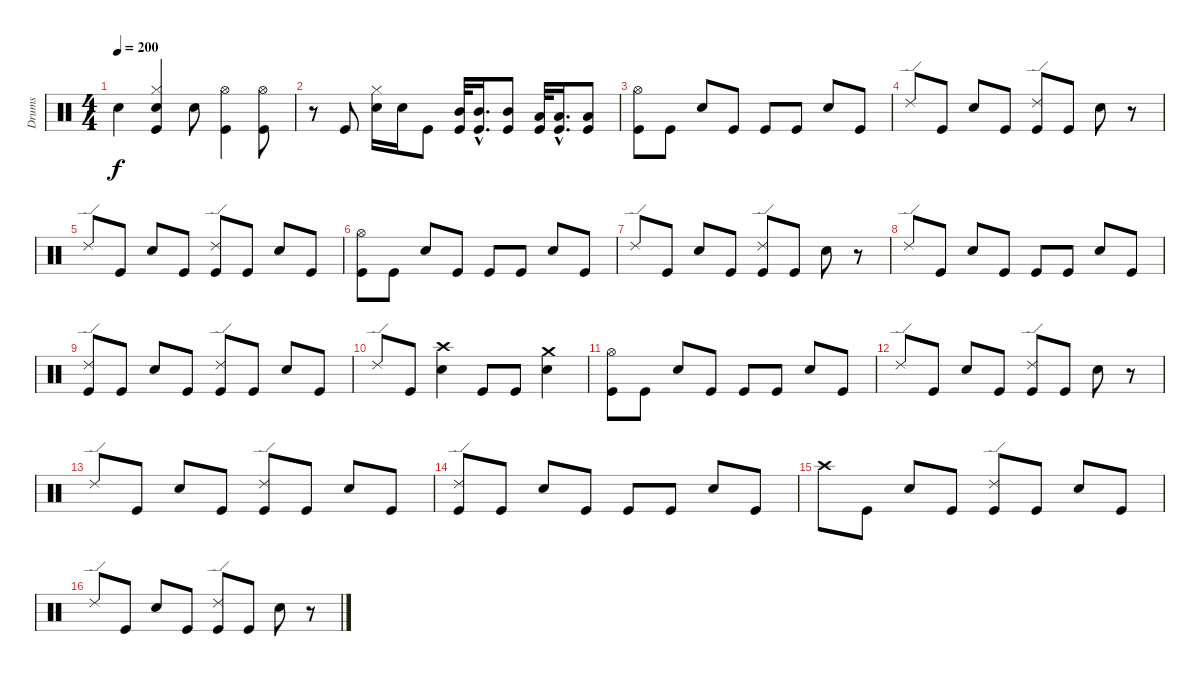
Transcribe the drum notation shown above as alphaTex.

\track ("Drums" "Drums") {instrument percussion}
\staff {score}
\articulation defaults
\ts (4 4)
\tempo 200
\clef neutral
\ks c "Snare (hit) 2".4{dy f}
("Hi-Hat (closed)" "Snare (hit) 2" "Kick (hit)").4 "Snare (hit) 2".8 ("Hi-Hat (open)" "Kick (hit)").4 ("Hi-Hat (open)" "Kick (hit)").8 |
r.8 "Kick (hit)".8 ("Hi-Hat (closed)" "Snare (hit) 2").16 "Snare (hit) 2".16 "Kick (hit)".8 ("Mid Tom (hit)" "Kick (hit)").32 ("Mid Tom (hit)"{hac} "Kick (hit)"{hac}).16{d} ("Mid Tom (hit)" "Kick (hit)").8 ("Low Tom (hit)" "Kick (hit)").32 ("Low Tom (hit)"{hac} "Kick (hit)"{hac}).16{d} ("Low Tom (hit)" "Kick (hit)").8 |
("Hi-Hat (open)" "Kick (hit)").8 "Kick (hit)".8 "Snare (hit) 2".8 "Kick (hit)".8 "Kick (hit)".8 "Kick (hit)".8 "Snare (hit) 2".8 "Kick (hit)".8 |
"Ride (edge) 2".8 "Kick (hit)".8 "Snare (hit) 2".8 "Kick (hit)".8 ("Ride (edge) 2" "Kick (hit)").8 "Kick (hit)".8 "Snare (hit) 2".8 r.8 |
"Ride (edge) 2".8 "Kick (hit)".8 "Snare (hit) 2".8 "Kick (hit)".8 ("Ride (edge) 2" "Kick (hit)").8 "Kick (hit)".8 "Snare (hit) 2".8 "Kick (hit)".8 |
("Hi-Hat (open)" "Kick (hit)").8 "Kick (hit)".8 "Snare (hit) 2".8 "Kick (hit)".8 "Kick (hit)".8 "Kick (hit)".8 "Snare (hit) 2".8 "Kick (hit)".8 |
"Ride (edge) 2".8 "Kick (hit)".8 "Snare (hit) 2".8 "Kick (hit)".8 ("Ride (edge) 2" "Kick (hit)").8 "Kick (hit)".8 "Snare (hit) 2".8 r.8 |
"Ride (edge) 2".8 "Kick (hit)".8 "Snare (hit) 2".8 "Kick (hit)".8 "Kick (hit)".8 "Kick (hit)".8 "Snare (hit) 2".8 "Kick (hit)".8 |
("Ride (edge) 2" "Kick (hit)").8 "Kick (hit)".8 "Snare (hit) 2".8 "Kick (hit)".8 ("Ride (edge) 2" "Kick (hit)").8 "Kick (hit)".8 "Snare (hit) 2".8 "Kick (hit)".8 |
"Ride (edge) 2".8 "Kick (hit)".8 ("Crash high (hit)" "Snare (hit) 2").4 "Kick (hit)".8 "Kick (hit)".8 ("Crash medium (hit)" "Snare (hit) 2").4 |
("Hi-Hat (open)" "Kick (hit)").8 "Kick (hit)".8 "Snare (hit) 2".8 "Kick (hit)".8 "Kick (hit)".8 "Kick (hit)".8 "Snare (hit) 2".8 "Kick (hit)".8 |
"Ride (edge) 2".8 "Kick (hit)".8 "Snare (hit) 2".8 "Kick (hit)".8 ("Ride (edge) 2" "Kick (hit)").8 "Kick (hit)".8 "Snare (hit) 2".8 r.8 |
"Ride (edge) 2".8 "Kick (hit)".8 "Snare (hit) 2".8 "Kick (hit)".8 ("Ride (edge) 2" "Kick (hit)").8 "Kick (hit)".8 "Snare (hit) 2".8 "Kick (hit)".8 |
("Ride (edge) 2" "Kick (hit)").8 "Kick (hit)".8 "Snare (hit) 2".8 "Kick (hit)".8 "Kick (hit)".8 "Kick (hit)".8 "Snare (hit) 2".8 "Kick (hit)".8 |
"Crash high (hit)".8 "Kick (hit)".8 "Snare (hit) 2".8 "Kick (hit)".8 ("Ride (edge) 2" "Kick (hit)").8 "Kick (hit)".8 "Snare (hit) 2".8 "Kick (hit)".8 |
"Ride (edge) 2".8 "Kick (hit)".8 "Snare (hit) 2".8 "Kick (hit)".8 ("Ride (edge) 2" "Kick (hit)").8 "Kick (hit)".8 "Snare (hit) 2".8 r.8
